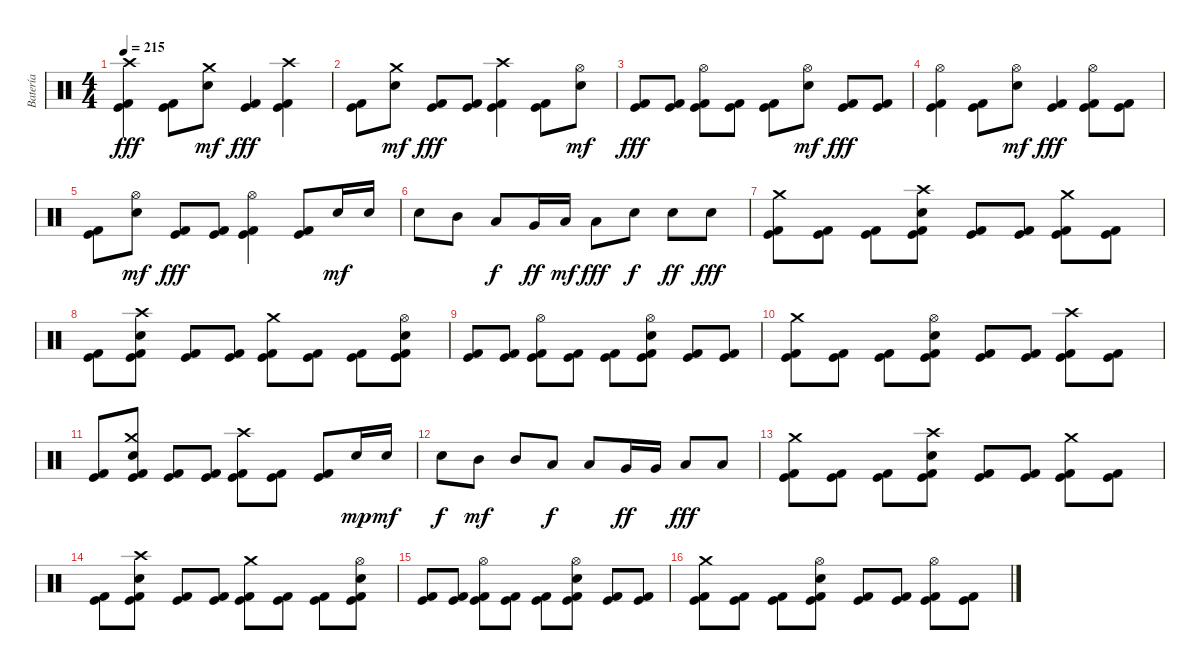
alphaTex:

\track ("Batería" "Batería") {instrument percussion}
\staff {score}
\articulation defaults
\ts (4 4)
\tempo 215
\clef neutral
\ks c
("Crash high (hit)" "Kick (hit) 2" "Kick (hit)").4{dy fff} ("Kick (hit) 2" "Kick (hit)").8 ("Crash medium (hit)" "Electric Snare (hit)").8{dy mf} ("Kick (hit) 2" "Kick (hit)").4{dy fff} ("Crash high (hit)" "Kick (hit) 2" "Kick (hit)").4 |
("Kick (hit) 2" "Kick (hit)").8 ("Crash medium (hit)" "Electric Snare (hit)").8{dy mf} ("Kick (hit) 2" "Kick (hit)").8{dy fff} ("Kick (hit) 2" "Kick (hit)").8 ("Crash high (hit)" "Kick (hit) 2" "Kick (hit)").4 ("Kick (hit) 2" "Kick (hit)").8 ("Hi-Hat (open)" "Electric Snare (hit)").8{dy mf} |
("Kick (hit) 2" "Kick (hit)").8{dy fff} ("Kick (hit) 2" "Kick (hit)").8 ("Hi-Hat (open)" "Kick (hit) 2" "Kick (hit)").8 ("Kick (hit) 2" "Kick (hit)").8 ("Kick (hit) 2" "Kick (hit)").8 ("Hi-Hat (open)" "Electric Snare (hit)").8{dy mf} ("Kick (hit) 2" "Kick (hit)").8{dy fff} ("Kick (hit) 2" "Kick (hit)").8 |
("Hi-Hat (open)" "Kick (hit) 2" "Kick (hit)").4 ("Kick (hit) 2" "Kick (hit)").8 ("Hi-Hat (open)" "Electric Snare (hit)").8{dy mf} ("Kick (hit) 2" "Kick (hit)").4{dy fff} ("Hi-Hat (open)" "Kick (hit) 2" "Kick (hit)").8 ("Kick (hit) 2" "Kick (hit)").8 |
("Kick (hit) 2" "Kick (hit)").8 ("Hi-Hat (open)" "Electric Snare (hit)").8{dy mf} ("Kick (hit) 2" "Kick (hit)").8{dy fff} ("Kick (hit) 2" "Kick (hit)").8 ("Hi-Hat (open)" "Kick (hit) 2" "Kick (hit)").4 ("Kick (hit) 2" "Kick (hit)").8 "Electric Snare (hit)".16{dy mf} "Electric Snare (hit)".16 |
"Electric Snare (hit)".8 "Mid Tom (hit)".8 "Low Tom (hit)".8{dy f} "Very Low Tom (hit)".16{dy ff} "Low Floor Tom (hit)".16{dy mf} "Low Floor Tom (hit)".8{dy fff} "Electric Snare (hit)".8{dy f} "Electric Snare (hit)".8{dy ff} "Electric Snare (hit)".8{dy fff} |
("Crash medium (hit)" "Kick (hit) 2" "Kick (hit)").8 ("Kick (hit) 2" "Kick (hit)").8 ("Kick (hit) 2" "Kick (hit)").8 ("Crash high (hit)" "Electric Snare (hit)" "Kick (hit) 2" "Kick (hit)").8 ("Kick (hit) 2" "Kick (hit)").8 ("Kick (hit) 2" "Kick (hit)").8 ("Crash medium (hit)" "Kick (hit) 2" "Kick (hit)").8 ("Kick (hit) 2" "Kick (hit)").8 |
("Kick (hit) 2" "Kick (hit)").8 ("Crash high (hit)" "Electric Snare (hit)" "Kick (hit) 2" "Kick (hit)").8 ("Kick (hit) 2" "Kick (hit)").8 ("Kick (hit) 2" "Kick (hit)").8 ("Crash medium (hit)" "Kick (hit) 2" "Kick (hit)").8 ("Kick (hit) 2" "Kick (hit)").8 ("Kick (hit) 2" "Kick (hit)").8 ("Hi-Hat (open)" "Electric Snare (hit)" "Kick (hit) 2" "Kick (hit)").8 |
("Kick (hit) 2" "Kick (hit)").8 ("Kick (hit) 2" "Kick (hit)").8 ("Hi-Hat (open)" "Kick (hit) 2" "Kick (hit)").8 ("Kick (hit) 2" "Kick (hit)").8 ("Kick (hit) 2" "Kick (hit)").8 ("Hi-Hat (open)" "Electric Snare (hit)" "Kick (hit) 2" "Kick (hit)").8 ("Kick (hit) 2" "Kick (hit)").8 ("Kick (hit) 2" "Kick (hit)").8 |
("Crash medium (hit)" "Kick (hit) 2" "Kick (hit)").8 ("Kick (hit) 2" "Kick (hit)").8 ("Kick (hit) 2" "Kick (hit)").8 ("Hi-Hat (open)" "Electric Snare (hit)" "Kick (hit) 2" "Kick (hit)").8 ("Kick (hit) 2" "Kick (hit)").8 ("Kick (hit) 2" "Kick (hit)").8 ("Crash high (hit)" "Kick (hit) 2" "Kick (hit)").8 ("Kick (hit) 2" "Kick (hit)").8 |
("Kick (hit) 2" "Kick (hit)").8 ("Crash medium (hit)" "Electric Snare (hit)" "Kick (hit) 2" "Kick (hit)").8 ("Kick (hit) 2" "Kick (hit)").8 ("Kick (hit) 2" "Kick (hit)").8 ("Crash high (hit)" "Kick (hit) 2" "Kick (hit)").8 ("Kick (hit) 2" "Kick (hit)").8 ("Kick (hit) 2" "Kick (hit)").8 "Electric Snare (hit)".16{dy mp} "Electric Snare (hit)".16{dy mf} |
"Electric Snare (hit)".8{dy f} "Mid Tom (hit)".8{dy mf} "Mid Tom (hit)".8 "Low Tom (hit)".8{dy f} "Low Tom (hit)".8 "Very Low Tom (hit)".16{dy ff} "Very Low Tom (hit)".16 "Low Floor Tom (hit)".8{dy fff} "Low Floor Tom (hit)".8 |
("Crash medium (hit)" "Kick (hit) 2" "Kick (hit)").8 ("Kick (hit) 2" "Kick (hit)").8 ("Kick (hit) 2" "Kick (hit)").8 ("Crash high (hit)" "Electric Snare (hit)" "Kick (hit) 2" "Kick (hit)").8 ("Kick (hit) 2" "Kick (hit)").8 ("Kick (hit) 2" "Kick (hit)").8 ("Crash medium (hit)" "Kick (hit) 2" "Kick (hit)").8 ("Kick (hit) 2" "Kick (hit)").8 |
("Kick (hit) 2" "Kick (hit)").8 ("Crash high (hit)" "Electric Snare (hit)" "Kick (hit) 2" "Kick (hit)").8 ("Kick (hit) 2" "Kick (hit)").8 ("Kick (hit) 2" "Kick (hit)").8 ("Crash medium (hit)" "Kick (hit) 2" "Kick (hit)").8 ("Kick (hit) 2" "Kick (hit)").8 ("Kick (hit) 2" "Kick (hit)").8 ("Hi-Hat (open)" "Electric Snare (hit)" "Kick (hit) 2" "Kick (hit)").8 |
("Kick (hit) 2" "Kick (hit)").8 ("Kick (hit) 2" "Kick (hit)").8 ("Hi-Hat (open)" "Kick (hit) 2" "Kick (hit)").8 ("Kick (hit) 2" "Kick (hit)").8 ("Kick (hit) 2" "Kick (hit)").8 ("Hi-Hat (open)" "Electric Snare (hit)" "Kick (hit) 2" "Kick (hit)").8 ("Kick (hit) 2" "Kick (hit)").8 ("Kick (hit) 2" "Kick (hit)").8 |
("Crash medium (hit)" "Kick (hit) 2" "Kick (hit)").8 ("Kick (hit) 2" "Kick (hit)").8 ("Kick (hit) 2" "Kick (hit)").8 ("Hi-Hat (open)" "Electric Snare (hit)" "Kick (hit) 2" "Kick (hit)").8 ("Kick (hit) 2" "Kick (hit)").8 ("Kick (hit) 2" "Kick (hit)").8 ("Hi-Hat (open)" "Kick (hit) 2" "Kick (hit)").8 ("Kick (hit) 2" "Kick (hit)").8
